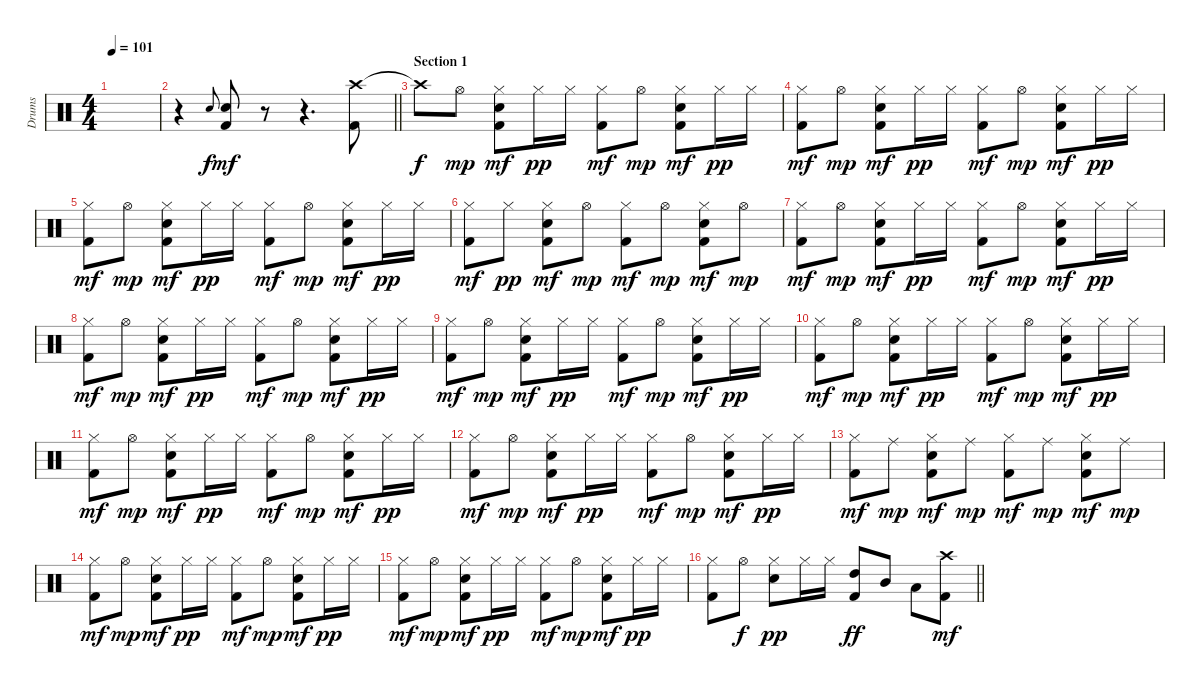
\track ("Drums" "Drums") {instrument percussion}
\staff {score}
\articulation defaults
\ts (4 4)
\tempo 101
\clef neutral
\ks c
|
\barLineRight lightlight
r.4 "Snare (hit) 2".8{gr onbeat} ("Snare (hit) 2" "Kick (hit) 2").8{dy mf} r.8 r.4{d} ("Crash high (hit)" "Kick (hit) 2").8 |
\section ("" "Section 1")
"Crash high (hit)"{t}.8{dy f} "Hi-Hat (open)".8{dy mp} ("Hi-Hat (closed)" "Snare (hit) 2" "Kick (hit) 2").8{dy mf} "Hi-Hat (closed)".16{dy pp} "Hi-Hat (closed)".16 ("Hi-Hat (closed)" "Kick (hit) 2").8{dy mf} "Hi-Hat (open)".8{dy mp} ("Hi-Hat (closed)" "Snare (hit) 2" "Kick (hit) 2").8{dy mf} "Hi-Hat (closed)".16{dy pp} "Hi-Hat (closed)".16 |
("Hi-Hat (closed)" "Kick (hit) 2").8{dy mf} "Hi-Hat (open)".8{dy mp} ("Hi-Hat (closed)" "Snare (hit) 2" "Kick (hit) 2").8{dy mf} "Hi-Hat (closed)".16{dy pp} "Hi-Hat (closed)".16 ("Hi-Hat (closed)" "Kick (hit) 2").8{dy mf} "Hi-Hat (open)".8{dy mp} ("Hi-Hat (closed)" "Snare (hit) 2" "Kick (hit) 2").8{dy mf} "Hi-Hat (closed)".16{dy pp} "Hi-Hat (closed)".16 |
("Hi-Hat (closed)" "Kick (hit) 2").8{dy mf} "Hi-Hat (open)".8{dy mp} ("Hi-Hat (closed)" "Snare (hit) 2" "Kick (hit) 2").8{dy mf} "Hi-Hat (closed)".16{dy pp} "Hi-Hat (closed)".16 ("Hi-Hat (closed)" "Kick (hit) 2").8{dy mf} "Hi-Hat (open)".8{dy mp} ("Hi-Hat (closed)" "Snare (hit) 2" "Kick (hit) 2").8{dy mf} "Hi-Hat (closed)".16{dy pp} "Hi-Hat (closed)".16 |
("Hi-Hat (closed)" "Kick (hit) 2").8{dy mf} "Hi-Hat (closed)".8{dy pp} ("Hi-Hat (closed)" "Snare (hit) 2" "Kick (hit) 2").8{dy mf} "Hi-Hat (open)".8{dy mp} ("Hi-Hat (closed)" "Kick (hit) 2").8{dy mf} "Hi-Hat (open)".8{dy mp} ("Hi-Hat (closed)" "Snare (hit) 2" "Kick (hit) 2").8{dy mf} "Hi-Hat (open)".8{dy mp} |
("Hi-Hat (closed)" "Kick (hit) 2").8{dy mf} "Hi-Hat (open)".8{dy mp} ("Hi-Hat (closed)" "Snare (hit) 2" "Kick (hit) 2").8{dy mf} "Hi-Hat (closed)".16{dy pp} "Hi-Hat (closed)".16 ("Hi-Hat (closed)" "Kick (hit) 2").8{dy mf} "Hi-Hat (open)".8{dy mp} ("Hi-Hat (closed)" "Snare (hit) 2" "Kick (hit) 2").8{dy mf} "Hi-Hat (closed)".16{dy pp} "Hi-Hat (closed)".16 |
("Hi-Hat (closed)" "Kick (hit) 2").8{dy mf} "Hi-Hat (open)".8{dy mp} ("Hi-Hat (closed)" "Snare (hit) 2" "Kick (hit) 2").8{dy mf} "Hi-Hat (closed)".16{dy pp} "Hi-Hat (closed)".16 ("Hi-Hat (closed)" "Kick (hit) 2").8{dy mf} "Hi-Hat (open)".8{dy mp} ("Hi-Hat (closed)" "Snare (hit) 2" "Kick (hit) 2").8{dy mf} "Hi-Hat (closed)".16{dy pp} "Hi-Hat (closed)".16 |
("Hi-Hat (closed)" "Kick (hit) 2").8{dy mf} "Hi-Hat (open)".8{dy mp} ("Hi-Hat (closed)" "Snare (hit) 2" "Kick (hit) 2").8{dy mf} "Hi-Hat (closed)".16{dy pp} "Hi-Hat (closed)".16 ("Hi-Hat (closed)" "Kick (hit) 2").8{dy mf} "Hi-Hat (open)".8{dy mp} ("Hi-Hat (closed)" "Snare (hit) 2" "Kick (hit) 2").8{dy mf} "Hi-Hat (closed)".16{dy pp} "Hi-Hat (closed)".16 |
("Hi-Hat (closed)" "Kick (hit) 2").8{dy mf} "Hi-Hat (open)".8{dy mp} ("Hi-Hat (closed)" "Snare (hit) 2" "Kick (hit) 2").8{dy mf} "Hi-Hat (closed)".16{dy pp} "Hi-Hat (closed)".16 ("Hi-Hat (closed)" "Kick (hit) 2").8{dy mf} "Hi-Hat (open)".8{dy mp} ("Hi-Hat (closed)" "Snare (hit) 2" "Kick (hit) 2").8{dy mf} "Hi-Hat (closed)".16{dy pp} "Hi-Hat (closed)".16 |
("Hi-Hat (closed)" "Kick (hit) 2").8{dy mf} "Hi-Hat (open)".8{dy mp} ("Hi-Hat (closed)" "Snare (hit) 2" "Kick (hit) 2").8{dy mf} "Hi-Hat (closed)".16{dy pp} "Hi-Hat (closed)".16 ("Hi-Hat (closed)" "Kick (hit) 2").8{dy mf} "Hi-Hat (open)".8{dy mp} ("Hi-Hat (closed)" "Snare (hit) 2" "Kick (hit) 2").8{dy mf} "Hi-Hat (closed)".16{dy pp} "Hi-Hat (closed)".16 |
("Hi-Hat (closed)" "Kick (hit) 2").8{dy mf} "Hi-Hat (open)".8{dy mp} ("Hi-Hat (closed)" "Snare (hit) 2" "Kick (hit) 2").8{dy mf} "Hi-Hat (closed)".16{dy pp} "Hi-Hat (closed)".16 ("Hi-Hat (closed)" "Kick (hit) 2").8{dy mf} "Hi-Hat (open)".8{dy mp} ("Hi-Hat (closed)" "Snare (hit) 2" "Kick (hit) 2").8{dy mf} "Hi-Hat (closed)".16{dy pp} "Hi-Hat (closed)".16 |
("Hi-Hat (closed)" "Kick (hit) 2").8{dy mf} "Ride (middle)".8{dy mp} ("Hi-Hat (closed)" "Snare (hit) 2" "Kick (hit) 2").8{dy mf} "Ride (middle)".8{dy mp} ("Hi-Hat (closed)" "Kick (hit) 2").8{dy mf} "Ride (middle)".8{dy mp} ("Hi-Hat (closed)" "Snare (hit) 2" "Kick (hit) 2").8{dy mf} "Ride (middle)".8{dy mp} |
("Hi-Hat (closed)" "Kick (hit) 2").8{dy mf} "Hi-Hat (open)".8{dy mp} ("Hi-Hat (closed)" "Snare (hit) 2" "Kick (hit) 2").8{dy mf} "Hi-Hat (closed)".16{dy pp} "Hi-Hat (closed)".16 ("Hi-Hat (closed)" "Kick (hit) 2").8{dy mf} "Hi-Hat (open)".8{dy mp} ("Hi-Hat (closed)" "Snare (hit) 2" "Kick (hit) 2").8{dy mf} "Hi-Hat (closed)".16{dy pp} "Hi-Hat (closed)".16 |
("Hi-Hat (closed)" "Kick (hit) 2").8{dy mf} "Hi-Hat (open)".8{dy mp} ("Hi-Hat (closed)" "Snare (hit) 2" "Kick (hit) 2").8{dy mf} "Hi-Hat (closed)".16{dy pp} "Hi-Hat (closed)".16 ("Hi-Hat (closed)" "Kick (hit) 2").8{dy mf} "Hi-Hat (open)".8{dy mp} ("Hi-Hat (closed)" "Snare (hit) 2" "Kick (hit) 2").8{dy mf} "Hi-Hat (closed)".16{dy pp} "Hi-Hat (closed)".16 |
\barLineRight lightlight
("Hi-Hat (closed)" "Kick (hit) 2").8 "Hi-Hat (open)".8{dy f} ("Hi-Hat (closed)" "Snare (hit) 2").8{dy pp} "Hi-Hat (closed)".16 "Hi-Hat (closed)".16 ("High Tom (hit)" "Kick (hit) 2").8{dy ff} "Mid Tom (hit)".8 "Low Tom (hit)".8 ("Crash high (hit)" "Kick (hit) 2").8{dy mf}
